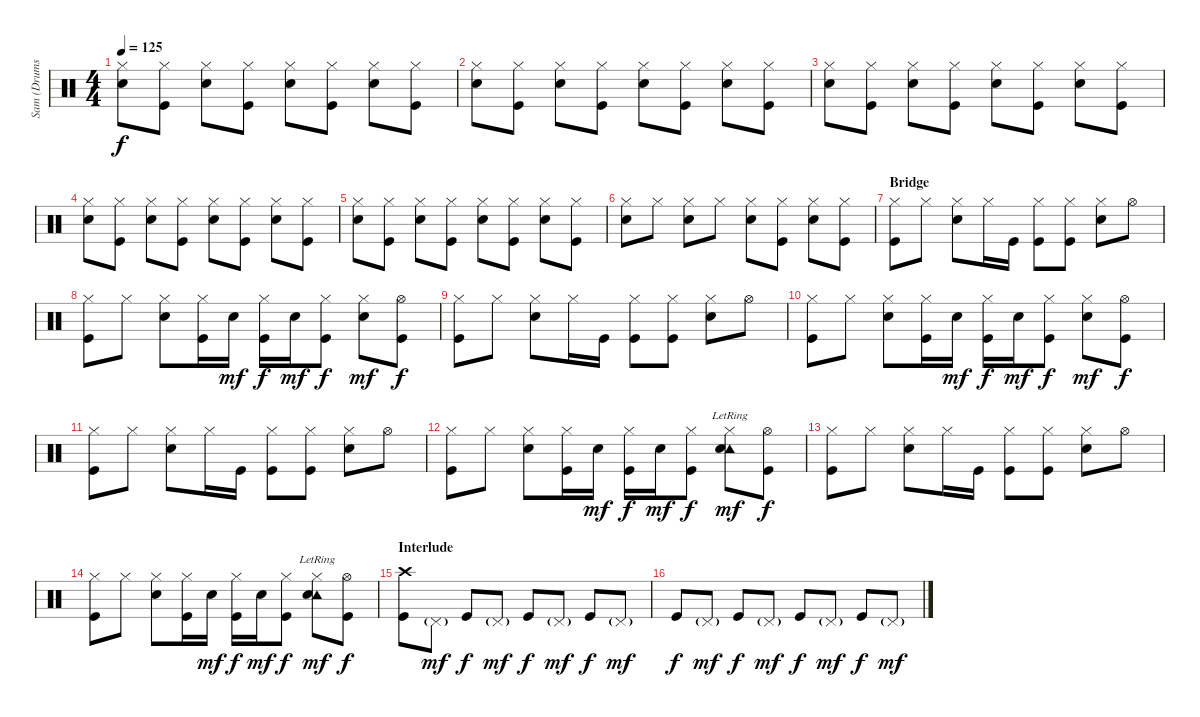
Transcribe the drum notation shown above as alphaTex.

\track ("Sam (Drums)" "Sam (Drums") {instrument percussion}
\staff {score}
\articulation defaults
\ts (4 4)
\tempo 125
\clef neutral
\ks c
("Hi-Hat (closed)" "Snare (hit) 2").8{dy f} ("Hi-Hat (closed)" "Kick (hit)").8 ("Hi-Hat (closed)" "Snare (hit) 2").8 ("Hi-Hat (closed)" "Kick (hit)").8 ("Hi-Hat (closed)" "Snare (hit) 2").8 ("Hi-Hat (closed)" "Kick (hit)").8 ("Hi-Hat (closed)" "Snare (hit) 2").8 ("Hi-Hat (closed)" "Kick (hit)").8 |
("Hi-Hat (closed)" "Snare (hit) 2").8 ("Hi-Hat (closed)" "Kick (hit)").8 ("Hi-Hat (closed)" "Snare (hit) 2").8 ("Hi-Hat (closed)" "Kick (hit)").8 ("Hi-Hat (closed)" "Snare (hit) 2").8 ("Hi-Hat (closed)" "Kick (hit)").8 ("Hi-Hat (closed)" "Snare (hit) 2").8 ("Hi-Hat (closed)" "Kick (hit)").8 |
("Hi-Hat (closed)" "Snare (hit) 2").8 ("Hi-Hat (closed)" "Kick (hit)").8 ("Hi-Hat (closed)" "Snare (hit) 2").8 ("Hi-Hat (closed)" "Kick (hit)").8 ("Hi-Hat (closed)" "Snare (hit) 2").8 ("Hi-Hat (closed)" "Kick (hit)").8 ("Hi-Hat (closed)" "Snare (hit) 2").8 ("Hi-Hat (closed)" "Kick (hit)").8 |
("Hi-Hat (closed)" "Snare (hit) 2").8 ("Hi-Hat (closed)" "Kick (hit)").8 ("Hi-Hat (closed)" "Snare (hit) 2").8 ("Hi-Hat (closed)" "Kick (hit)").8 ("Hi-Hat (closed)" "Snare (hit) 2").8 ("Hi-Hat (closed)" "Kick (hit)").8 ("Hi-Hat (closed)" "Snare (hit) 2").8 ("Hi-Hat (closed)" "Kick (hit)").8 |
("Hi-Hat (closed)" "Snare (hit) 2").8 ("Hi-Hat (closed)" "Kick (hit)").8 ("Hi-Hat (closed)" "Snare (hit) 2").8 ("Hi-Hat (closed)" "Kick (hit)").8 ("Hi-Hat (closed)" "Snare (hit) 2").8 ("Hi-Hat (closed)" "Kick (hit)").8 ("Hi-Hat (closed)" "Snare (hit) 2").8 ("Hi-Hat (closed)" "Kick (hit)").8 |
("Hi-Hat (closed)" "Snare (hit) 2").8 "Hi-Hat (closed)".8 ("Hi-Hat (closed)" "Snare (hit) 2").8 "Hi-Hat (closed)".8 ("Hi-Hat (closed)" "Snare (hit) 2").8 ("Hi-Hat (closed)" "Kick (hit)").8 ("Hi-Hat (closed)" "Snare (hit) 2").8 ("Hi-Hat (closed)" "Kick (hit)").8 |
\section ("" "Bridge")
("Hi-Hat (closed)" "Kick (hit)").8 "Hi-Hat (closed)".8 ("Hi-Hat (closed)" "Snare (hit) 2").8 "Hi-Hat (closed)".16 "Kick (hit)".16 ("Hi-Hat (closed)" "Kick (hit)").8 ("Hi-Hat (closed)" "Kick (hit)").8 ("Hi-Hat (closed)" "Snare (hit) 2").8 "Hi-Hat (open)".8 |
("Hi-Hat (closed)" "Kick (hit)").8 "Hi-Hat (closed)".8 ("Hi-Hat (closed)" "Snare (hit) 2").8 ("Hi-Hat (closed)" "Kick (hit)").16 "Snare (hit) 2".16{dy mf} ("Hi-Hat (closed)" "Kick (hit)").16{dy f} "Snare (hit) 2".16{dy mf} ("Hi-Hat (closed)" "Kick (hit)").8{dy f} ("Hi-Hat (closed)" "Snare (hit) 2").8{dy mf} ("Hi-Hat (open)" "Kick (hit)").8{dy f} |
("Hi-Hat (closed)" "Kick (hit)").8 "Hi-Hat (closed)".8 ("Hi-Hat (closed)" "Snare (hit) 2").8 "Hi-Hat (closed)".16 "Kick (hit)".16 ("Hi-Hat (closed)" "Kick (hit)").8 ("Hi-Hat (closed)" "Kick (hit)").8 ("Hi-Hat (closed)" "Snare (hit) 2").8 "Hi-Hat (open)".8 |
("Hi-Hat (closed)" "Kick (hit)").8 "Hi-Hat (closed)".8 ("Hi-Hat (closed)" "Snare (hit) 2").8 ("Hi-Hat (closed)" "Kick (hit)").16 "Snare (hit) 2".16{dy mf} ("Hi-Hat (closed)" "Kick (hit)").16{dy f} "Snare (hit) 2".16{dy mf} ("Hi-Hat (closed)" "Kick (hit)").8{dy f} ("Hi-Hat (closed)" "Snare (hit) 2").8{dy mf} ("Hi-Hat (open)" "Kick (hit)").8{dy f} |
("Hi-Hat (closed)" "Kick (hit)").8 "Hi-Hat (closed)".8 ("Hi-Hat (closed)" "Snare (hit) 2").8 "Hi-Hat (closed)".16 "Kick (hit)".16 ("Hi-Hat (closed)" "Kick (hit)").8 ("Hi-Hat (closed)" "Kick (hit)").8 ("Hi-Hat (closed)" "Snare (hit) 2").8 "Hi-Hat (open)".8 |
("Hi-Hat (closed)" "Kick (hit)").8 "Hi-Hat (closed)".8 ("Hi-Hat (closed)" "Snare (hit) 2").8 ("Hi-Hat (closed)" "Kick (hit)").16 "Snare (hit) 2".16{dy mf} ("Hi-Hat (closed)" "Kick (hit)").16{dy f} "Snare (hit) 2".16{dy mf} ("Hi-Hat (closed)" "Kick (hit)").8{dy f} ("Hi-Hat (closed)" "Tambourine (hit)"{lr} "Snare (hit) 2").8{dy mf} ("Hi-Hat (open)" "Kick (hit)").8{dy f} |
("Hi-Hat (closed)" "Kick (hit)").8 "Hi-Hat (closed)".8 ("Hi-Hat (closed)" "Snare (hit) 2").8 "Hi-Hat (closed)".16 "Kick (hit)".16 ("Hi-Hat (closed)" "Kick (hit)").8 ("Hi-Hat (closed)" "Kick (hit)").8 ("Hi-Hat (closed)" "Snare (hit) 2").8 "Hi-Hat (open)".8 |
("Hi-Hat (closed)" "Kick (hit)").8 "Hi-Hat (closed)".8 ("Hi-Hat (closed)" "Snare (hit) 2").8 ("Hi-Hat (closed)" "Kick (hit)").16 "Snare (hit) 2".16{dy mf} ("Hi-Hat (closed)" "Kick (hit)").16{dy f} "Snare (hit) 2".16{dy mf} ("Hi-Hat (closed)" "Kick (hit)").8{dy f} ("Hi-Hat (closed)" "Tambourine (hit)"{lr} "Snare (hit) 2").8{dy mf} ("Hi-Hat (open)" "Kick (hit)").8{dy f} |
\section ("" "Interlude")
("Crash high (hit)" "Kick (hit)").8 "Pedal Hi-Hat (hit)"{g}.8{dy mf} "Kick (hit)".8{dy f} "Pedal Hi-Hat (hit)"{g}.8{dy mf} "Kick (hit)".8{dy f} "Pedal Hi-Hat (hit)"{g}.8{dy mf} "Kick (hit)".8{dy f} "Pedal Hi-Hat (hit)"{g}.8{dy mf} |
"Kick (hit)".8{dy f} "Pedal Hi-Hat (hit)"{g}.8{dy mf} "Kick (hit)".8{dy f} "Pedal Hi-Hat (hit)"{g}.8{dy mf} "Kick (hit)".8{dy f} "Pedal Hi-Hat (hit)"{g}.8{dy mf} "Kick (hit)".8{dy f} "Pedal Hi-Hat (hit)"{g}.8{dy mf}
